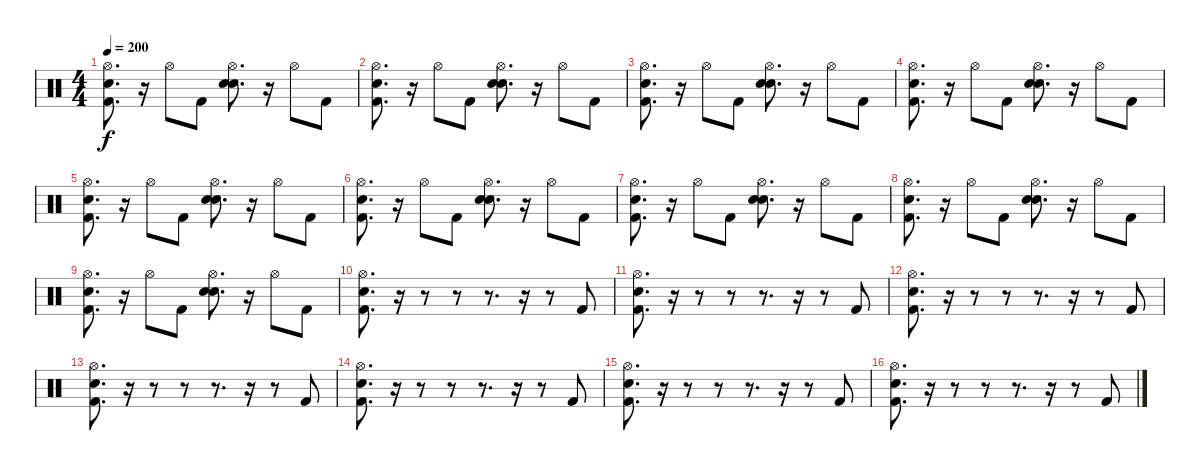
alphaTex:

\track "" {instrument percussion}
\staff {score}
\articulation defaults
\ts (4 4)
\tempo 200
\clef neutral
\ks c
("Snare (hit)" "Kick (hit) 2" "Hi-Hat (open)").8{d dy f} r.16 "Hi-Hat (open)".8 "Kick (hit) 2".8 ("Snare (hit)" "Snare (hit) 2" "Hi-Hat (open)").8{d} r.16 "Hi-Hat (open)".8 "Kick (hit) 2".8 |
("Snare (hit)" "Kick (hit) 2" "Hi-Hat (open)").8{d} r.16 "Hi-Hat (open)".8 "Kick (hit) 2".8 ("Snare (hit)" "Snare (hit) 2" "Hi-Hat (open)").8{d} r.16 "Hi-Hat (open)".8 "Kick (hit) 2".8 |
("Snare (hit)" "Kick (hit) 2" "Hi-Hat (open)").8{d} r.16 "Hi-Hat (open)".8 "Kick (hit) 2".8 ("Snare (hit)" "Snare (hit) 2" "Hi-Hat (open)").8{d} r.16 "Hi-Hat (open)".8 "Kick (hit) 2".8 |
("Snare (hit)" "Kick (hit) 2" "Hi-Hat (open)").8{d} r.16 "Hi-Hat (open)".8 "Kick (hit) 2".8 ("Snare (hit)" "Snare (hit) 2" "Hi-Hat (open)").8{d} r.16 "Hi-Hat (open)".8 "Kick (hit) 2".8 |
("Snare (hit)" "Kick (hit) 2" "Hi-Hat (open)").8{d} r.16 "Hi-Hat (open)".8 "Kick (hit) 2".8 ("Snare (hit)" "Snare (hit) 2" "Hi-Hat (open)").8{d} r.16 "Hi-Hat (open)".8 "Kick (hit) 2".8 |
("Snare (hit)" "Kick (hit) 2" "Hi-Hat (open)").8{d} r.16 "Hi-Hat (open)".8 "Kick (hit) 2".8 ("Snare (hit)" "Snare (hit) 2" "Hi-Hat (open)").8{d} r.16 "Hi-Hat (open)".8 "Kick (hit) 2".8 |
("Snare (hit)" "Kick (hit) 2" "Hi-Hat (open)").8{d} r.16 "Hi-Hat (open)".8 "Kick (hit) 2".8 ("Snare (hit)" "Snare (hit) 2" "Hi-Hat (open)").8{d} r.16 "Hi-Hat (open)".8 "Kick (hit) 2".8 |
("Snare (hit)" "Kick (hit) 2" "Hi-Hat (open)").8{d} r.16 "Hi-Hat (open)".8 "Kick (hit) 2".8 ("Snare (hit)" "Snare (hit) 2" "Hi-Hat (open)").8{d} r.16 "Hi-Hat (open)".8 "Kick (hit) 2".8 |
("Snare (hit)" "Kick (hit) 2" "Hi-Hat (open)").8{d} r.16 "Hi-Hat (open)".8 "Kick (hit) 2".8 ("Snare (hit)" "Snare (hit) 2" "Hi-Hat (open)").8{d} r.16 "Hi-Hat (open)".8 "Kick (hit) 2".8 |
("Snare (hit)" "Kick (hit) 2" "Hi-Hat (open)").8{d} r.16 r.8 r.8 r.8{d} r.16 r.8 "Kick (hit) 2".8 |
("Snare (hit)" "Kick (hit) 2" "Hi-Hat (open)").8{d} r.16 r.8 r.8 r.8{d} r.16 r.8 "Kick (hit) 2".8 |
("Snare (hit)" "Kick (hit) 2" "Hi-Hat (open)").8{d} r.16 r.8 r.8 r.8{d} r.16 r.8 "Kick (hit) 2".8 |
("Snare (hit)" "Kick (hit) 2" "Hi-Hat (open)").8{d} r.16 r.8 r.8 r.8{d} r.16 r.8 "Kick (hit) 2".8 |
("Snare (hit)" "Kick (hit) 2" "Hi-Hat (open)").8{d} r.16 r.8 r.8 r.8{d} r.16 r.8 "Kick (hit) 2".8 |
("Snare (hit)" "Kick (hit) 2" "Hi-Hat (open)").8{d} r.16 r.8 r.8 r.8{d} r.16 r.8 "Kick (hit) 2".8 |
("Snare (hit)" "Kick (hit) 2" "Hi-Hat (open)").8{d} r.16 r.8 r.8 r.8{d} r.16 r.8 "Kick (hit) 2".8
